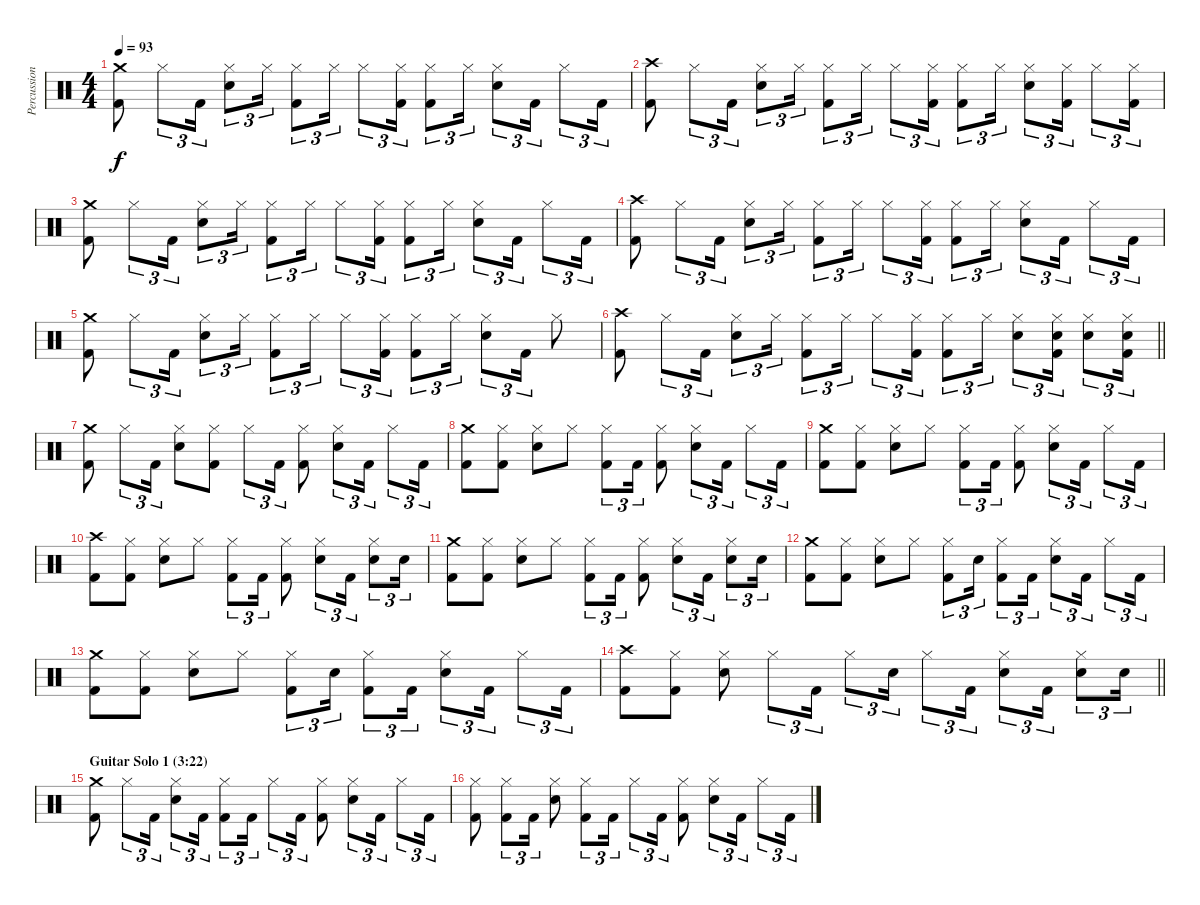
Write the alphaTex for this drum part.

\track ("Percussion" "Percussion") {instrument percussion}
\staff {score}
\articulation defaults
\ts (4 4)
\tempo 93
\clef neutral
\ks c
("Crash medium (hit)" "Kick (hit) 2").8{dy f} "Hi-Hat (closed)".8{tu (3 2)} "Kick (hit) 2".16{tu (3 2)} ("Hi-Hat (closed)" "Electric Snare (hit)").8{tu (3 2)} "Hi-Hat (closed)".16{tu (3 2)} ("Hi-Hat (closed)" "Kick (hit) 2").8{tu (3 2)} "Hi-Hat (closed)".16{tu (3 2)} "Hi-Hat (closed)".8{tu (3 2)} ("Hi-Hat (closed)" "Kick (hit) 2").16{tu (3 2)} ("Hi-Hat (closed)" "Kick (hit) 2").8{tu (3 2)} "Hi-Hat (closed)".16{tu (3 2)} ("Hi-Hat (closed)" "Electric Snare (hit)").8{tu (3 2)} "Kick (hit) 2".16{tu (3 2)} "Hi-Hat (closed)".8{tu (3 2)} "Kick (hit) 2".16{tu (3 2)} |
("Crash high (hit)" "Kick (hit) 2").8 "Hi-Hat (closed)".8{tu (3 2)} "Kick (hit) 2".16{tu (3 2)} ("Hi-Hat (closed)" "Electric Snare (hit)").8{tu (3 2)} "Hi-Hat (closed)".16{tu (3 2)} ("Hi-Hat (closed)" "Kick (hit) 2").8{tu (3 2)} "Hi-Hat (closed)".16{tu (3 2)} "Hi-Hat (closed)".8{tu (3 2)} ("Hi-Hat (closed)" "Kick (hit) 2").16{tu (3 2)} ("Hi-Hat (closed)" "Kick (hit) 2").8{tu (3 2)} "Hi-Hat (closed)".16{tu (3 2)} ("Hi-Hat (closed)" "Electric Snare (hit)").8{tu (3 2)} ("Hi-Hat (closed)" "Kick (hit) 2").16{tu (3 2)} "Hi-Hat (closed)".8{tu (3 2)} ("Hi-Hat (closed)" "Kick (hit) 2").16{tu (3 2)} |
("Crash medium (hit)" "Kick (hit) 2").8 "Hi-Hat (closed)".8{tu (3 2)} "Kick (hit) 2".16{tu (3 2)} ("Hi-Hat (closed)" "Electric Snare (hit)").8{tu (3 2)} "Hi-Hat (closed)".16{tu (3 2)} ("Hi-Hat (closed)" "Kick (hit) 2").8{tu (3 2)} "Hi-Hat (closed)".16{tu (3 2)} "Hi-Hat (closed)".8{tu (3 2)} ("Hi-Hat (closed)" "Kick (hit) 2").16{tu (3 2)} ("Hi-Hat (closed)" "Kick (hit) 2").8{tu (3 2)} "Hi-Hat (closed)".16{tu (3 2)} ("Hi-Hat (closed)" "Electric Snare (hit)").8{tu (3 2)} "Kick (hit) 2".16{tu (3 2)} "Hi-Hat (closed)".8{tu (3 2)} "Kick (hit) 2".16{tu (3 2)} |
("Crash high (hit)" "Kick (hit) 2").8 "Hi-Hat (closed)".8{tu (3 2)} "Kick (hit) 2".16{tu (3 2)} ("Hi-Hat (closed)" "Electric Snare (hit)").8{tu (3 2)} "Hi-Hat (closed)".16{tu (3 2)} ("Hi-Hat (closed)" "Kick (hit) 2").8{tu (3 2)} "Hi-Hat (closed)".16{tu (3 2)} "Hi-Hat (closed)".8{tu (3 2)} ("Hi-Hat (closed)" "Kick (hit) 2").16{tu (3 2)} ("Hi-Hat (closed)" "Kick (hit) 2").8{tu (3 2)} "Hi-Hat (closed)".16{tu (3 2)} ("Hi-Hat (closed)" "Electric Snare (hit)").8{tu (3 2)} "Kick (hit) 2".16{tu (3 2)} "Hi-Hat (closed)".8{tu (3 2)} "Kick (hit) 2".16{tu (3 2)} |
("Crash medium (hit)" "Kick (hit) 2").8 "Hi-Hat (closed)".8{tu (3 2)} "Kick (hit) 2".16{tu (3 2)} ("Hi-Hat (closed)" "Electric Snare (hit)").8{tu (3 2)} "Hi-Hat (closed)".16{tu (3 2)} ("Hi-Hat (closed)" "Kick (hit) 2").8{tu (3 2)} "Hi-Hat (closed)".16{tu (3 2)} "Hi-Hat (closed)".8{tu (3 2)} ("Hi-Hat (closed)" "Kick (hit) 2").16{tu (3 2)} ("Hi-Hat (closed)" "Kick (hit) 2").8{tu (3 2)} "Hi-Hat (closed)".16{tu (3 2)} ("Hi-Hat (closed)" "Electric Snare (hit)").8{tu (3 2)} "Kick (hit) 2".16{tu (3 2)} "Hi-Hat (closed)".8 |
\barLineRight lightlight
("Crash high (hit)" "Kick (hit) 2").8 "Hi-Hat (closed)".8{tu (3 2)} "Kick (hit) 2".16{tu (3 2)} ("Hi-Hat (closed)" "Electric Snare (hit)").8{tu (3 2)} "Hi-Hat (closed)".16{tu (3 2)} ("Hi-Hat (closed)" "Kick (hit) 2").8{tu (3 2)} "Hi-Hat (closed)".16{tu (3 2)} "Hi-Hat (closed)".8{tu (3 2)} ("Hi-Hat (closed)" "Kick (hit) 2").16{tu (3 2)} ("Hi-Hat (closed)" "Kick (hit) 2").8{tu (3 2)} "Hi-Hat (closed)".16{tu (3 2)} ("Hi-Hat (closed)" "Electric Snare (hit)").8{tu (3 2)} ("Hi-Hat (closed)" "Electric Snare (hit)" "Kick (hit) 2").16{tu (3 2)} ("Hi-Hat (closed)" "Electric Snare (hit)").8{tu (3 2)} ("Hi-Hat (closed)" "Electric Snare (hit)" "Kick (hit) 2").16{tu (3 2)} |
("Crash medium (hit)" "Kick (hit) 2").8 "Hi-Hat (closed)".8{tu (3 2)} "Kick (hit) 2".16{tu (3 2)} ("Hi-Hat (closed)" "Electric Snare (hit)").8 ("Hi-Hat (closed)" "Kick (hit) 2").8 "Hi-Hat (closed)".8{tu (3 2)} "Kick (hit) 2".16{tu (3 2)} ("Hi-Hat (closed)" "Kick (hit) 2").8 ("Hi-Hat (closed)" "Electric Snare (hit)").8{tu (3 2)} "Kick (hit) 2".16{tu (3 2)} "Hi-Hat (closed)".8{tu (3 2)} "Kick (hit) 2".16{tu (3 2)} |
("Crash medium (hit)" "Kick (hit) 2").8 ("Hi-Hat (closed)" "Kick (hit) 2").8 ("Hi-Hat (closed)" "Electric Snare (hit)").8 "Hi-Hat (closed)".8 ("Hi-Hat (closed)" "Kick (hit) 2").8{tu (3 2)} "Kick (hit) 2".16{tu (3 2)} ("Hi-Hat (closed)" "Kick (hit) 2").8 ("Hi-Hat (closed)" "Electric Snare (hit)").8{tu (3 2)} "Kick (hit) 2".16{tu (3 2)} "Hi-Hat (closed)".8{tu (3 2)} "Kick (hit) 2".16{tu (3 2)} |
("Crash medium (hit)" "Kick (hit) 2").8 ("Hi-Hat (closed)" "Kick (hit) 2").8 ("Hi-Hat (closed)" "Electric Snare (hit)").8 "Hi-Hat (closed)".8 ("Hi-Hat (closed)" "Kick (hit) 2").8{tu (3 2)} "Kick (hit) 2".16{tu (3 2)} ("Hi-Hat (closed)" "Kick (hit) 2").8 ("Hi-Hat (closed)" "Electric Snare (hit)").8{tu (3 2)} "Kick (hit) 2".16{tu (3 2)} "Hi-Hat (closed)".8{tu (3 2)} "Kick (hit) 2".16{tu (3 2)} |
("Crash high (hit)" "Kick (hit) 2").8 ("Hi-Hat (closed)" "Kick (hit) 2").8 ("Hi-Hat (closed)" "Electric Snare (hit)").8 "Hi-Hat (closed)".8 ("Hi-Hat (closed)" "Kick (hit) 2").8{tu (3 2)} "Kick (hit) 2".16{tu (3 2)} ("Hi-Hat (closed)" "Kick (hit) 2").8 ("Hi-Hat (closed)" "Electric Snare (hit)").8{tu (3 2)} "Kick (hit) 2".16{tu (3 2)} ("Hi-Hat (closed)" "Electric Snare (hit)").8{tu (3 2)} "Electric Snare (hit)".16{tu (3 2)} |
("Crash medium (hit)" "Kick (hit) 2").8 ("Hi-Hat (closed)" "Kick (hit) 2").8 ("Hi-Hat (closed)" "Electric Snare (hit)").8 "Hi-Hat (closed)".8 ("Hi-Hat (closed)" "Kick (hit) 2").8{tu (3 2)} "Kick (hit) 2".16{tu (3 2)} ("Hi-Hat (closed)" "Kick (hit) 2").8 ("Hi-Hat (closed)" "Electric Snare (hit)").8{tu (3 2)} "Kick (hit) 2".16{tu (3 2)} ("Hi-Hat (closed)" "Electric Snare (hit)").8{tu (3 2)} "Electric Snare (hit)".16{tu (3 2)} |
("Crash medium (hit)" "Kick (hit) 2").8 ("Hi-Hat (closed)" "Kick (hit) 2").8 ("Hi-Hat (closed)" "Electric Snare (hit)").8 "Hi-Hat (closed)".8 ("Hi-Hat (closed)" "Kick (hit) 2").8{tu (3 2)} "Electric Snare (hit)".16{tu (3 2)} ("Hi-Hat (closed)" "Kick (hit) 2").8{tu (3 2)} "Kick (hit) 2".16{tu (3 2)} ("Hi-Hat (closed)" "Electric Snare (hit)").8{tu (3 2)} "Kick (hit) 2".16{tu (3 2)} "Hi-Hat (closed)".8{tu (3 2)} "Kick (hit) 2".16{tu (3 2)} |
("Crash medium (hit)" "Kick (hit) 2").8 ("Hi-Hat (closed)" "Kick (hit) 2").8 ("Hi-Hat (closed)" "Electric Snare (hit)").8 "Hi-Hat (closed)".8 ("Hi-Hat (closed)" "Kick (hit) 2").8{tu (3 2)} "Electric Snare (hit)".16{tu (3 2)} ("Hi-Hat (closed)" "Kick (hit) 2").8{tu (3 2)} "Kick (hit) 2".16{tu (3 2)} ("Hi-Hat (closed)" "Electric Snare (hit)").8{tu (3 2)} "Kick (hit) 2".16{tu (3 2)} "Hi-Hat (closed)".8{tu (3 2)} "Kick (hit) 2".16{tu (3 2)} |
\barLineRight lightlight
("Crash high (hit)" "Kick (hit) 2").8 ("Hi-Hat (closed)" "Kick (hit) 2").8 ("Hi-Hat (closed)" "Electric Snare (hit)").8 "Hi-Hat (closed)".8{tu (3 2)} "Kick (hit) 2".16{tu (3 2)} "Hi-Hat (closed)".8{tu (3 2)} "Electric Snare (hit)".16{tu (3 2)} "Hi-Hat (closed)".8{tu (3 2)} "Kick (hit) 2".16{tu (3 2)} ("Hi-Hat (closed)" "Electric Snare (hit)").8{tu (3 2)} "Kick (hit) 2".16{tu (3 2)} ("Hi-Hat (closed)" "Electric Snare (hit)").8{tu (3 2)} "Electric Snare (hit)".16{tu (3 2)} |
\section ("" "Guitar Solo 1 (3:22)")
("Crash medium (hit)" "Kick (hit) 2").8 "Hi-Hat (closed)".8{tu (3 2)} "Kick (hit) 2".16{tu (3 2)} ("Hi-Hat (closed)" "Electric Snare (hit)").8{tu (3 2)} "Kick (hit) 2".16{tu (3 2)} ("Hi-Hat (closed)" "Kick (hit) 2").8{tu (3 2)} "Kick (hit) 2".16{tu (3 2)} "Hi-Hat (closed)".8{tu (3 2)} "Kick (hit) 2".16{tu (3 2)} ("Hi-Hat (closed)" "Kick (hit) 2").8 ("Hi-Hat (closed)" "Electric Snare (hit)").8{tu (3 2)} "Kick (hit) 2".16{tu (3 2)} "Hi-Hat (closed)".8{tu (3 2)} "Kick (hit) 2".16{tu (3 2)} |
("Hi-Hat (closed)" "Kick (hit) 2").8 ("Hi-Hat (closed)" "Kick (hit) 2").8{tu (3 2)} "Kick (hit) 2".16{tu (3 2)} ("Hi-Hat (closed)" "Electric Snare (hit)").8 ("Hi-Hat (closed)" "Kick (hit) 2").8{tu (3 2)} "Kick (hit) 2".16{tu (3 2)} "Hi-Hat (closed)".8{tu (3 2)} "Kick (hit) 2".16{tu (3 2)} ("Hi-Hat (closed)" "Kick (hit) 2").8 ("Hi-Hat (closed)" "Electric Snare (hit)").8{tu (3 2)} "Kick (hit) 2".16{tu (3 2)} "Hi-Hat (closed)".8{tu (3 2)} "Kick (hit) 2".16{tu (3 2)}
